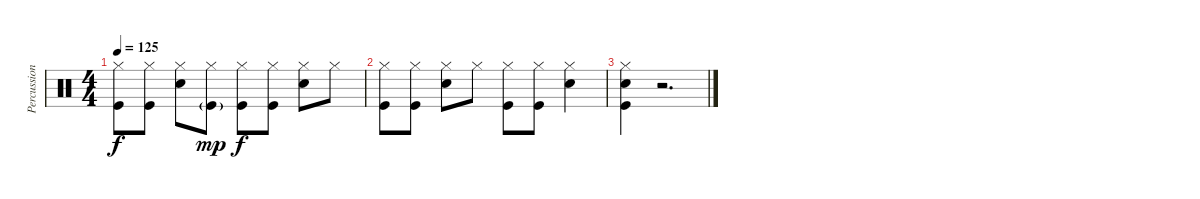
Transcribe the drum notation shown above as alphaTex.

\track ("Percussion" "Percussion") {instrument percussion}
\staff {score}
\articulation defaults
\ts (4 4)
\tempo 125
\clef neutral
\ks c
("Hi-Hat (closed)" "Kick (hit)").8{dy f} ("Hi-Hat (closed)" "Kick (hit)").8 ("Hi-Hat (closed)" "Snare (hit) 2").8 ("Hi-Hat (closed)" "Kick (hit)"{g}).8{dy mp} ("Hi-Hat (closed)" "Kick (hit)").8{dy f} ("Hi-Hat (closed)" "Kick (hit)").8 ("Hi-Hat (closed)" "Snare (hit) 2").8 "Hi-Hat (closed)".8 |
("Hi-Hat (closed)" "Kick (hit)").8 ("Hi-Hat (closed)" "Kick (hit)").8 ("Hi-Hat (closed)" "Snare (hit) 2").8 "Hi-Hat (closed)".8 ("Hi-Hat (closed)" "Kick (hit)").8 ("Hi-Hat (closed)" "Kick (hit)").8 ("Hi-Hat (closed)" "Snare (hit) 2").4 |
("Hi-Hat (closed)" "Snare (hit) 2" "Kick (hit)").4 r.2{d}
